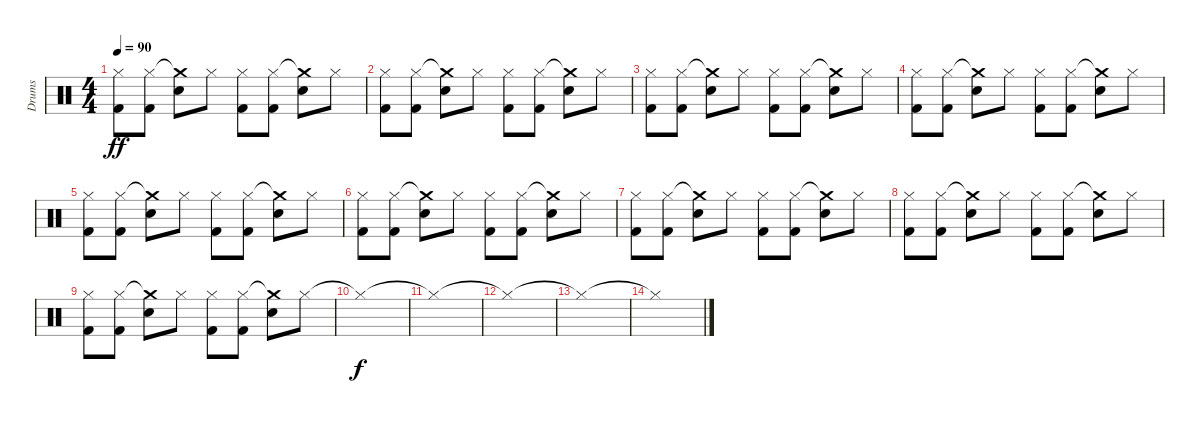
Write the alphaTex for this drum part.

\track ("Drums" "Drums") {instrument percussion}
\staff {score}
\articulation defaults
\ts (4 4)
\tempo 90
\clef neutral
\ks c
("Kick (hit) 2" "Hi-Hat (closed)").8{dy ff} ("Kick (hit) 2" "Hi-Hat (closed)").8 ("Electric Snare (hit)" "Crash medium (hit)"{t}).8 "Hi-Hat (closed)".8 ("Kick (hit) 2" "Hi-Hat (closed)").8 ("Kick (hit) 2" "Hi-Hat (closed)").8 ("Electric Snare (hit)" "Crash medium (hit)"{t}).8 "Hi-Hat (closed)".8 |
("Kick (hit) 2" "Hi-Hat (closed)").8 ("Kick (hit) 2" "Hi-Hat (closed)").8 ("Electric Snare (hit)" "Crash medium (hit)"{t}).8 "Hi-Hat (closed)".8 ("Kick (hit) 2" "Hi-Hat (closed)").8 ("Kick (hit) 2" "Hi-Hat (closed)").8 ("Electric Snare (hit)" "Crash medium (hit)"{t}).8 "Hi-Hat (closed)".8 |
("Kick (hit) 2" "Hi-Hat (closed)").8 ("Kick (hit) 2" "Hi-Hat (closed)").8 ("Electric Snare (hit)" "Crash medium (hit)"{t}).8 "Hi-Hat (closed)".8 ("Kick (hit) 2" "Hi-Hat (closed)").8 ("Kick (hit) 2" "Hi-Hat (closed)").8 ("Electric Snare (hit)" "Crash medium (hit)"{t}).8 "Hi-Hat (closed)".8 |
("Kick (hit) 2" "Hi-Hat (closed)").8 ("Kick (hit) 2" "Hi-Hat (closed)").8 ("Electric Snare (hit)" "Crash medium (hit)"{t}).8 "Hi-Hat (closed)".8 ("Kick (hit) 2" "Hi-Hat (closed)").8 ("Kick (hit) 2" "Hi-Hat (closed)").8 ("Electric Snare (hit)" "Crash medium (hit)"{t}).8 "Hi-Hat (closed)".8 |
("Kick (hit) 2" "Hi-Hat (closed)").8 ("Kick (hit) 2" "Hi-Hat (closed)").8 ("Electric Snare (hit)" "Crash medium (hit)"{t}).8 "Hi-Hat (closed)".8 ("Kick (hit) 2" "Hi-Hat (closed)").8 ("Kick (hit) 2" "Hi-Hat (closed)").8 ("Electric Snare (hit)" "Crash medium (hit)"{t}).8 "Hi-Hat (closed)".8 |
("Kick (hit) 2" "Hi-Hat (closed)").8 ("Kick (hit) 2" "Hi-Hat (closed)").8 ("Electric Snare (hit)" "Crash medium (hit)"{t}).8 "Hi-Hat (closed)".8 ("Kick (hit) 2" "Hi-Hat (closed)").8 ("Kick (hit) 2" "Hi-Hat (closed)").8 ("Electric Snare (hit)" "Crash medium (hit)"{t}).8 "Hi-Hat (closed)".8 |
("Kick (hit) 2" "Hi-Hat (closed)").8 ("Kick (hit) 2" "Hi-Hat (closed)").8 ("Electric Snare (hit)" "Crash medium (hit)"{t}).8 "Hi-Hat (closed)".8 ("Kick (hit) 2" "Hi-Hat (closed)").8 ("Kick (hit) 2" "Hi-Hat (closed)").8 ("Electric Snare (hit)" "Crash medium (hit)"{t}).8 "Hi-Hat (closed)".8 |
("Kick (hit) 2" "Hi-Hat (closed)").8 ("Kick (hit) 2" "Hi-Hat (closed)").8 ("Electric Snare (hit)" "Crash medium (hit)"{t}).8 "Hi-Hat (closed)".8 ("Kick (hit) 2" "Hi-Hat (closed)").8 ("Kick (hit) 2" "Hi-Hat (closed)").8 ("Electric Snare (hit)" "Crash medium (hit)"{t}).8 "Hi-Hat (closed)".8 |
("Kick (hit) 2" "Hi-Hat (closed)").8 ("Kick (hit) 2" "Hi-Hat (closed)").8 ("Electric Snare (hit)" "Crash medium (hit)"{t}).8 "Hi-Hat (closed)".8 ("Kick (hit) 2" "Hi-Hat (closed)").8 ("Kick (hit) 2" "Hi-Hat (closed)").8 ("Electric Snare (hit)" "Crash medium (hit)"{t}).8 "Hi-Hat (closed)".8 |
"Hi-Hat (closed)"{t}.1{dy f} |
"Hi-Hat (closed)"{t}.1 |
"Hi-Hat (closed)"{t}.1 |
"Hi-Hat (closed)"{t}.1 |
"Hi-Hat (closed)"{t}.1
